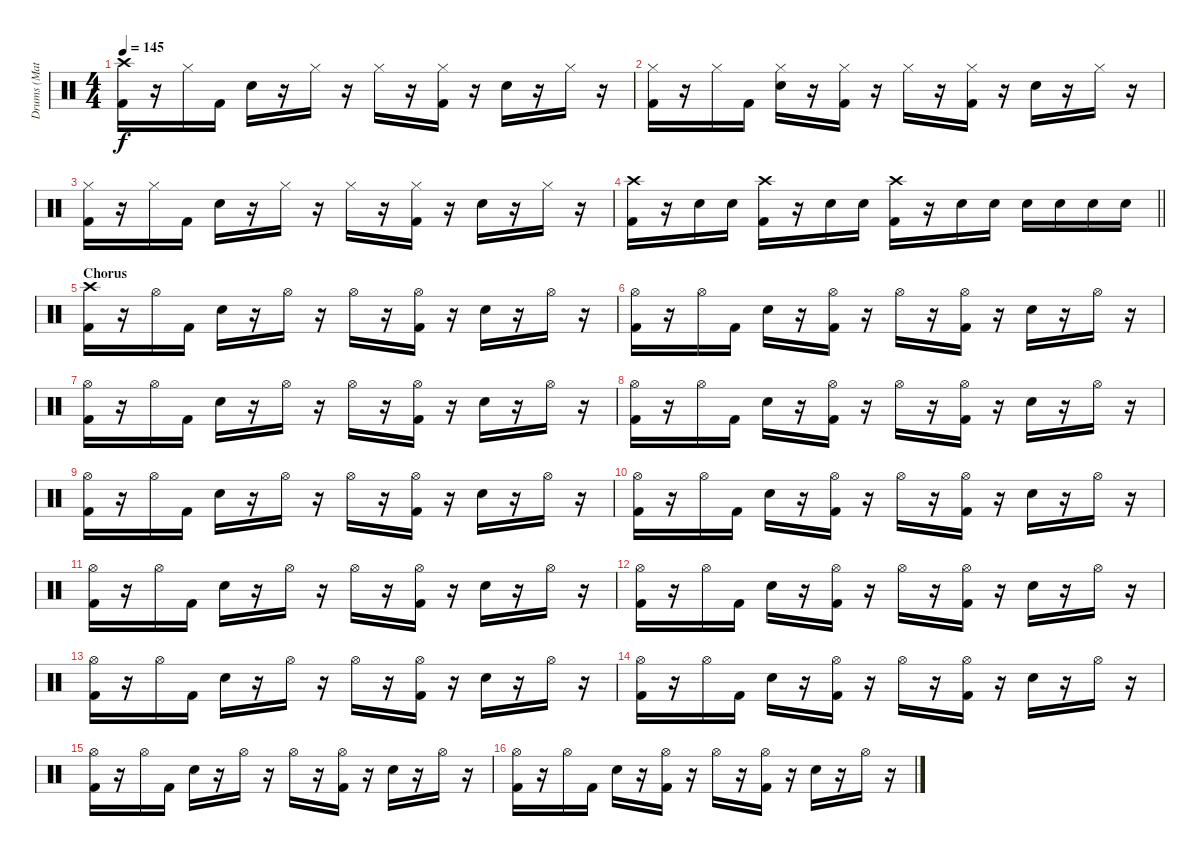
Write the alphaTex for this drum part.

\track ("Drums (Matt)" "Drums (Mat") {instrument percussion}
\staff {score}
\articulation defaults
\ts (4 4)
\tempo 145
\clef neutral
\ks c
("Crash high (hit)" "Kick (hit) 2").16{dy f} r.16 "Hi-Hat (closed)".16 "Kick (hit) 2".16 "Electric Snare (hit)".16 r.16 "Hi-Hat (closed)".16 r.16 "Hi-Hat (closed)".16 r.16 ("Hi-Hat (closed)" "Kick (hit) 2").16 r.16 "Electric Snare (hit)".16 r.16 "Hi-Hat (closed)".16 r.16 |
("Hi-Hat (closed)" "Kick (hit) 2").16 r.16 "Hi-Hat (closed)".16 "Kick (hit) 2".16 ("Hi-Hat (closed)" "Electric Snare (hit)").16 r.16 ("Hi-Hat (closed)" "Kick (hit) 2").16 r.16 "Hi-Hat (closed)".16 r.16 ("Hi-Hat (closed)" "Kick (hit) 2").16 r.16 "Electric Snare (hit)".16 r.16 "Hi-Hat (closed)".16 r.16 |
("Hi-Hat (closed)" "Kick (hit) 2").16 r.16 "Hi-Hat (closed)".16 "Kick (hit) 2".16 "Electric Snare (hit)".16 r.16 "Hi-Hat (closed)".16 r.16 "Hi-Hat (closed)".16 r.16 ("Hi-Hat (closed)" "Kick (hit) 2").16 r.16 "Electric Snare (hit)".16 r.16 "Hi-Hat (closed)".16 r.16 |
\barLineRight lightlight
("Crash high (hit)" "Kick (hit) 2").16 r.16 "Snare (hit) 2".16 "Snare (hit) 2".16 ("Crash high (hit)" "Kick (hit) 2").16 r.16 "Snare (hit) 2".16 "Snare (hit) 2".16 ("Crash high (hit)" "Kick (hit) 2").16 r.16 "Snare (hit) 2".16 "Snare (hit) 2".16 "Snare (hit) 2".16 "Snare (hit) 2".16 "Snare (hit) 2".16 "Snare (hit) 2".16 |
\section ("" "Chorus")
("Crash high (hit)" "Kick (hit) 2").16 r.16 "Hi-Hat (open)".16 "Kick (hit) 2".16 "Electric Snare (hit)".16 r.16 "Hi-Hat (open)".16 r.16 "Hi-Hat (open)".16 r.16 ("Hi-Hat (open)" "Kick (hit) 2").16 r.16 "Electric Snare (hit)".16 r.16 "Hi-Hat (open)".16 r.16 |
("Hi-Hat (open)" "Kick (hit) 2").16 r.16 "Hi-Hat (open)".16 "Kick (hit) 2".16 "Electric Snare (hit)".16 r.16 ("Hi-Hat (open)" "Kick (hit) 2").16 r.16 "Hi-Hat (open)".16 r.16 ("Hi-Hat (open)" "Kick (hit) 2").16 r.16 "Electric Snare (hit)".16 r.16 "Hi-Hat (open)".16 r.16 |
("Hi-Hat (open)" "Kick (hit) 2").16 r.16 "Hi-Hat (open)".16 "Kick (hit) 2".16 "Electric Snare (hit)".16 r.16 "Hi-Hat (open)".16 r.16 "Hi-Hat (open)".16 r.16 ("Hi-Hat (open)" "Kick (hit) 2").16 r.16 "Electric Snare (hit)".16 r.16 "Hi-Hat (open)".16 r.16 |
("Hi-Hat (open)" "Kick (hit) 2").16 r.16 "Hi-Hat (open)".16 "Kick (hit) 2".16 "Electric Snare (hit)".16 r.16 ("Hi-Hat (open)" "Kick (hit) 2").16 r.16 "Hi-Hat (open)".16 r.16 ("Hi-Hat (open)" "Kick (hit) 2").16 r.16 "Electric Snare (hit)".16 r.16 "Hi-Hat (open)".16 r.16 |
("Hi-Hat (open)" "Kick (hit) 2").16 r.16 "Hi-Hat (open)".16 "Kick (hit) 2".16 "Electric Snare (hit)".16 r.16 "Hi-Hat (open)".16 r.16 "Hi-Hat (open)".16 r.16 ("Hi-Hat (open)" "Kick (hit) 2").16 r.16 "Electric Snare (hit)".16 r.16 "Hi-Hat (open)".16 r.16 |
("Hi-Hat (open)" "Kick (hit) 2").16 r.16 "Hi-Hat (open)".16 "Kick (hit) 2".16 "Electric Snare (hit)".16 r.16 ("Hi-Hat (open)" "Kick (hit) 2").16 r.16 "Hi-Hat (open)".16 r.16 ("Hi-Hat (open)" "Kick (hit) 2").16 r.16 "Electric Snare (hit)".16 r.16 "Hi-Hat (open)".16 r.16 |
("Hi-Hat (open)" "Kick (hit) 2").16 r.16 "Hi-Hat (open)".16 "Kick (hit) 2".16 "Electric Snare (hit)".16 r.16 "Hi-Hat (open)".16 r.16 "Hi-Hat (open)".16 r.16 ("Hi-Hat (open)" "Kick (hit) 2").16 r.16 "Electric Snare (hit)".16 r.16 "Hi-Hat (open)".16 r.16 |
("Hi-Hat (open)" "Kick (hit) 2").16 r.16 "Hi-Hat (open)".16 "Kick (hit) 2".16 "Electric Snare (hit)".16 r.16 ("Hi-Hat (open)" "Kick (hit) 2").16 r.16 "Hi-Hat (open)".16 r.16 ("Hi-Hat (open)" "Kick (hit) 2").16 r.16 "Electric Snare (hit)".16 r.16 "Hi-Hat (open)".16 r.16 |
("Hi-Hat (open)" "Kick (hit) 2").16 r.16 "Hi-Hat (open)".16 "Kick (hit) 2".16 "Electric Snare (hit)".16 r.16 "Hi-Hat (open)".16 r.16 "Hi-Hat (open)".16 r.16 ("Hi-Hat (open)" "Kick (hit) 2").16 r.16 "Electric Snare (hit)".16 r.16 "Hi-Hat (open)".16 r.16 |
("Hi-Hat (open)" "Kick (hit) 2").16 r.16 "Hi-Hat (open)".16 "Kick (hit) 2".16 "Electric Snare (hit)".16 r.16 ("Hi-Hat (open)" "Kick (hit) 2").16 r.16 "Hi-Hat (open)".16 r.16 ("Hi-Hat (open)" "Kick (hit) 2").16 r.16 "Electric Snare (hit)".16 r.16 "Hi-Hat (open)".16 r.16 |
("Hi-Hat (open)" "Kick (hit) 2").16 r.16 "Hi-Hat (open)".16 "Kick (hit) 2".16 "Electric Snare (hit)".16 r.16 "Hi-Hat (open)".16 r.16 "Hi-Hat (open)".16 r.16 ("Hi-Hat (open)" "Kick (hit) 2").16 r.16 "Electric Snare (hit)".16 r.16 "Hi-Hat (open)".16 r.16 |
("Hi-Hat (open)" "Kick (hit) 2").16 r.16 "Hi-Hat (open)".16 "Kick (hit) 2".16 "Electric Snare (hit)".16 r.16 ("Hi-Hat (open)" "Kick (hit) 2").16 r.16 "Hi-Hat (open)".16 r.16 ("Hi-Hat (open)" "Kick (hit) 2").16 r.16 "Electric Snare (hit)".16 r.16 "Hi-Hat (open)".16 r.16
